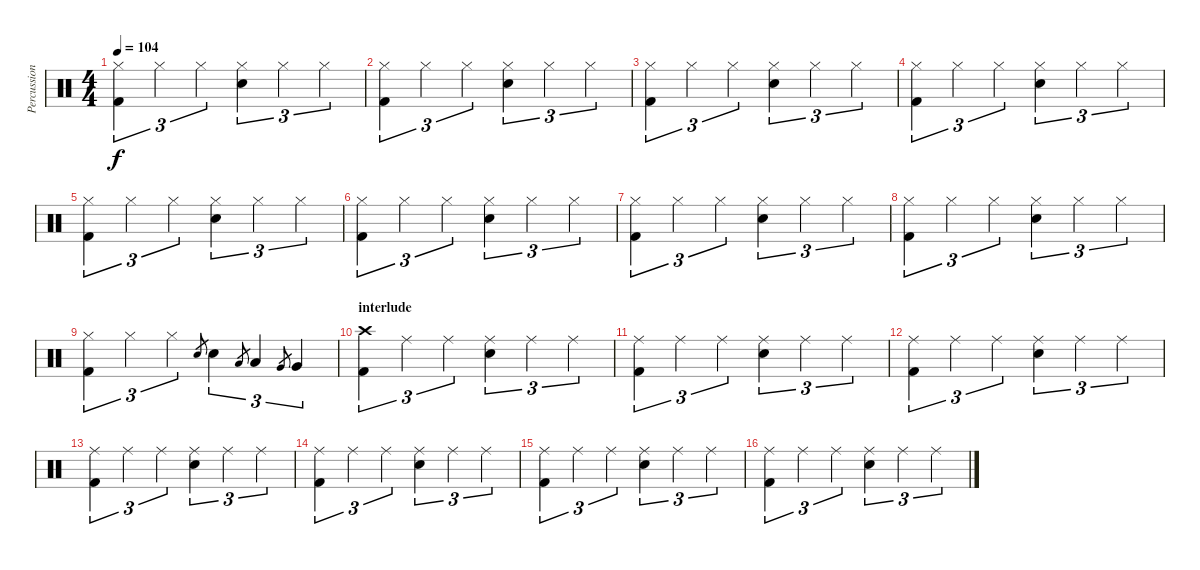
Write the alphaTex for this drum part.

\track ("Percussion" "Percussion") {instrument percussion}
\staff {score}
\articulation defaults
\ts (4 4)
\tempo 104
\clef neutral
\ks c
("Hi-Hat (closed)" "Kick (hit) 2").4{tu (3 2) dy f} "Hi-Hat (closed)".4{tu (3 2)} "Hi-Hat (closed)".4{tu (3 2)} ("Electric Snare (hit)" "Hi-Hat (closed)").4{tu (3 2)} "Hi-Hat (closed)".4{tu (3 2)} "Hi-Hat (closed)".4{tu (3 2)} |
("Hi-Hat (closed)" "Kick (hit) 2").4{tu (3 2)} "Hi-Hat (closed)".4{tu (3 2)} "Hi-Hat (closed)".4{tu (3 2)} ("Electric Snare (hit)" "Hi-Hat (closed)").4{tu (3 2)} "Hi-Hat (closed)".4{tu (3 2)} "Hi-Hat (closed)".4{tu (3 2)} |
("Hi-Hat (closed)" "Kick (hit) 2").4{tu (3 2)} "Hi-Hat (closed)".4{tu (3 2)} "Hi-Hat (closed)".4{tu (3 2)} ("Electric Snare (hit)" "Hi-Hat (closed)").4{tu (3 2)} "Hi-Hat (closed)".4{tu (3 2)} "Hi-Hat (closed)".4{tu (3 2)} |
("Hi-Hat (closed)" "Kick (hit) 2").4{tu (3 2)} "Hi-Hat (closed)".4{tu (3 2)} "Hi-Hat (closed)".4{tu (3 2)} ("Electric Snare (hit)" "Hi-Hat (closed)").4{tu (3 2)} "Hi-Hat (closed)".4{tu (3 2)} "Hi-Hat (closed)".4{tu (3 2)} |
("Hi-Hat (closed)" "Kick (hit) 2").4{tu (3 2)} "Hi-Hat (closed)".4{tu (3 2)} "Hi-Hat (closed)".4{tu (3 2)} ("Electric Snare (hit)" "Hi-Hat (closed)").4{tu (3 2)} "Hi-Hat (closed)".4{tu (3 2)} "Hi-Hat (closed)".4{tu (3 2)} |
("Hi-Hat (closed)" "Kick (hit) 2").4{tu (3 2)} "Hi-Hat (closed)".4{tu (3 2)} "Hi-Hat (closed)".4{tu (3 2)} ("Electric Snare (hit)" "Hi-Hat (closed)").4{tu (3 2)} "Hi-Hat (closed)".4{tu (3 2)} "Hi-Hat (closed)".4{tu (3 2)} |
("Hi-Hat (closed)" "Kick (hit) 2").4{tu (3 2)} "Hi-Hat (closed)".4{tu (3 2)} "Hi-Hat (closed)".4{tu (3 2)} ("Electric Snare (hit)" "Hi-Hat (closed)").4{tu (3 2)} "Hi-Hat (closed)".4{tu (3 2)} "Hi-Hat (closed)".4{tu (3 2)} |
("Hi-Hat (closed)" "Kick (hit) 2").4{tu (3 2)} "Hi-Hat (closed)".4{tu (3 2)} "Hi-Hat (closed)".4{tu (3 2)} ("Electric Snare (hit)" "Hi-Hat (closed)").4{tu (3 2)} "Hi-Hat (closed)".4{tu (3 2)} "Hi-Hat (closed)".4{tu (3 2)} |
("Hi-Hat (closed)" "Kick (hit) 2").4{tu (3 2)} "Hi-Hat (closed)".4{tu (3 2)} "Hi-Hat (closed)".4{tu (3 2)} "Electric Snare (hit)".8{gr} "Electric Snare (hit)".4{tu (3 2)} "Low Tom (hit)".8{gr} "Low Tom (hit)".4{tu (3 2)} "Very Low Tom (hit)".8{gr} "Very Low Tom (hit)".4{tu (3 2)} |
\section ("" "interlude")
("Crash high (hit)" "Kick (hit) 2").4{tu (3 2)} "Ride (middle)".4{tu (3 2)} "Ride (middle)".4{tu (3 2)} ("Electric Snare (hit)" "Ride (middle)").4{tu (3 2)} "Ride (middle)".4{tu (3 2)} "Ride (middle)".4{tu (3 2)} |
("Ride (middle)" "Kick (hit) 2").4{tu (3 2)} "Ride (middle)".4{tu (3 2)} "Ride (middle)".4{tu (3 2)} ("Electric Snare (hit)" "Ride (middle)").4{tu (3 2)} "Ride (middle)".4{tu (3 2)} "Ride (middle)".4{tu (3 2)} |
("Ride (middle)" "Kick (hit) 2").4{tu (3 2)} "Ride (middle)".4{tu (3 2)} "Ride (middle)".4{tu (3 2)} ("Electric Snare (hit)" "Ride (middle)").4{tu (3 2)} "Ride (middle)".4{tu (3 2)} "Ride (middle)".4{tu (3 2)} |
("Ride (middle)" "Kick (hit) 2").4{tu (3 2)} "Ride (middle)".4{tu (3 2)} "Ride (middle)".4{tu (3 2)} ("Electric Snare (hit)" "Ride (middle)").4{tu (3 2)} "Ride (middle)".4{tu (3 2)} "Ride (middle)".4{tu (3 2)} |
("Ride (middle)" "Kick (hit) 2").4{tu (3 2)} "Ride (middle)".4{tu (3 2)} "Ride (middle)".4{tu (3 2)} ("Electric Snare (hit)" "Ride (middle)").4{tu (3 2)} "Ride (middle)".4{tu (3 2)} "Ride (middle)".4{tu (3 2)} |
("Ride (middle)" "Kick (hit) 2").4{tu (3 2)} "Ride (middle)".4{tu (3 2)} "Ride (middle)".4{tu (3 2)} ("Electric Snare (hit)" "Ride (middle)").4{tu (3 2)} "Ride (middle)".4{tu (3 2)} "Ride (middle)".4{tu (3 2)} |
("Ride (middle)" "Kick (hit) 2").4{tu (3 2)} "Ride (middle)".4{tu (3 2)} "Ride (middle)".4{tu (3 2)} ("Electric Snare (hit)" "Ride (middle)").4{tu (3 2)} "Ride (middle)".4{tu (3 2)} "Ride (middle)".4{tu (3 2)}
